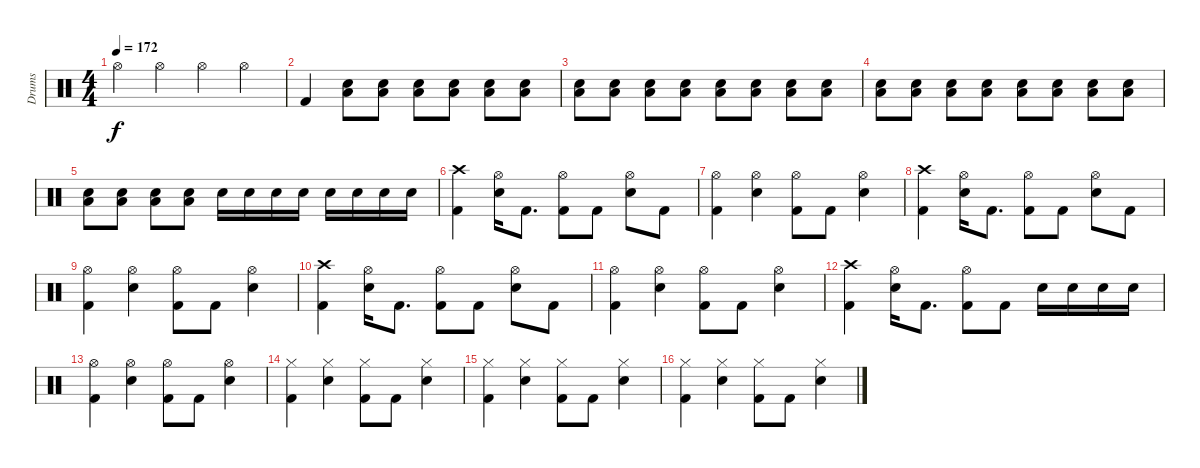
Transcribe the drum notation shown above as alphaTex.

\track ("Drums" "Drums") {instrument percussion}
\staff {score}
\articulation defaults
\ts (4 4)
\tempo 172
\clef neutral
\ks c "Hi-Hat (open)".4{dy f} "Hi-Hat (open)".4 "Hi-Hat (open)".4 "Hi-Hat (open)".4
|
"Kick (hit) 2".4{volume 10} ("Snare (hit) 2" "Low Floor Tom (hit)").8 ("Snare (hit) 2" "Low Floor Tom (hit)").8 ("Snare (hit) 2" "Low Floor Tom (hit)").8 ("Snare (hit) 2" "Low Floor Tom (hit)").8 ("Snare (hit) 2" "Low Floor Tom (hit)").8 ("Snare (hit) 2" "Low Floor Tom (hit)").8 |
("Snare (hit) 2" "Low Floor Tom (hit)").8{volume 11} ("Snare (hit) 2" "Low Floor Tom (hit)").8 ("Snare (hit) 2" "Low Floor Tom (hit)").8 ("Snare (hit) 2" "Low Floor Tom (hit)").8 ("Snare (hit) 2" "Low Floor Tom (hit)").8 ("Snare (hit) 2" "Low Floor Tom (hit)").8 ("Snare (hit) 2" "Low Floor Tom (hit)").8 ("Snare (hit) 2" "Low Floor Tom (hit)").8 |
("Snare (hit) 2" "Low Floor Tom (hit)").8{volume 12} ("Snare (hit) 2" "Low Floor Tom (hit)").8 ("Snare (hit) 2" "Low Floor Tom (hit)").8 ("Snare (hit) 2" "Low Floor Tom (hit)").8 ("Snare (hit) 2" "Low Floor Tom (hit)").8 ("Snare (hit) 2" "Low Floor Tom (hit)").8 ("Snare (hit) 2" "Low Floor Tom (hit)").8 ("Snare (hit) 2" "Low Floor Tom (hit)").8 |
("Snare (hit) 2" "Low Floor Tom (hit)").8 ("Snare (hit) 2" "Low Floor Tom (hit)").8 ("Snare (hit) 2" "Low Floor Tom (hit)").8 ("Snare (hit) 2" "Low Floor Tom (hit)").8 "Snare (hit) 2".16 "Snare (hit) 2".16 "Snare (hit) 2".16 "Snare (hit) 2".16 "Snare (hit) 2".16 "Snare (hit) 2".16 "Snare (hit) 2".16 "Snare (hit) 2".16 |
("Crash high (hit)" "Kick (hit) 2").4 ("Hi-Hat (open)" "Snare (hit) 2").16 "Kick (hit) 2".8{d} ("Hi-Hat (open)" "Kick (hit) 2").8 "Kick (hit) 2".8 ("Hi-Hat (open)" "Snare (hit) 2").8 "Kick (hit) 2".8 |
("Hi-Hat (open)" "Kick (hit) 2").4 ("Hi-Hat (open)" "Snare (hit) 2").4 ("Hi-Hat (open)" "Kick (hit) 2").8 "Kick (hit) 2".8 ("Hi-Hat (open)" "Snare (hit) 2").4 |
("Crash high (hit)" "Kick (hit) 2").4 ("Hi-Hat (open)" "Snare (hit) 2").16 "Kick (hit) 2".8{d} ("Hi-Hat (open)" "Kick (hit) 2").8 "Kick (hit) 2".8 ("Hi-Hat (open)" "Snare (hit) 2").8 "Kick (hit) 2".8 |
("Hi-Hat (open)" "Kick (hit) 2").4 ("Hi-Hat (open)" "Snare (hit) 2").4 ("Hi-Hat (open)" "Kick (hit) 2").8 "Kick (hit) 2".8 ("Hi-Hat (open)" "Snare (hit) 2").4 |
("Crash high (hit)" "Kick (hit) 2").4 ("Hi-Hat (open)" "Snare (hit) 2").16 "Kick (hit) 2".8{d} ("Hi-Hat (open)" "Kick (hit) 2").8 "Kick (hit) 2".8 ("Hi-Hat (open)" "Snare (hit) 2").8 "Kick (hit) 2".8 |
("Hi-Hat (open)" "Kick (hit) 2").4 ("Hi-Hat (open)" "Snare (hit) 2").4 ("Hi-Hat (open)" "Kick (hit) 2").8 "Kick (hit) 2".8 ("Hi-Hat (open)" "Snare (hit) 2").4 |
("Crash high (hit)" "Kick (hit) 2").4 ("Hi-Hat (open)" "Snare (hit) 2").16 "Kick (hit) 2".8{d} ("Hi-Hat (open)" "Kick (hit) 2").8 "Kick (hit) 2".8 "Snare (hit) 2".16 "Snare (hit) 2".16 "Snare (hit) 2".16 "Snare (hit) 2".16 |
("Hi-Hat (open)" "Kick (hit) 2").4 ("Hi-Hat (open)" "Snare (hit) 2").4 ("Hi-Hat (open)" "Kick (hit) 2").8 "Kick (hit) 2".8 ("Hi-Hat (open)" "Snare (hit) 2").4 |
("Kick (hit) 2" "Hi-Hat (closed)").4 ("Snare (hit) 2" "Hi-Hat (closed)").4 ("Kick (hit) 2" "Hi-Hat (closed)").8 "Kick (hit) 2".8 ("Snare (hit) 2" "Hi-Hat (closed)").4 |
("Kick (hit) 2" "Hi-Hat (closed)").4 ("Snare (hit) 2" "Hi-Hat (closed)").4 ("Kick (hit) 2" "Hi-Hat (closed)").8 "Kick (hit) 2".8 ("Snare (hit) 2" "Hi-Hat (closed)").4 |
("Kick (hit) 2" "Hi-Hat (closed)").4 ("Snare (hit) 2" "Hi-Hat (closed)").4 ("Kick (hit) 2" "Hi-Hat (closed)").8 "Kick (hit) 2".8 ("Snare (hit) 2" "Hi-Hat (closed)").4
